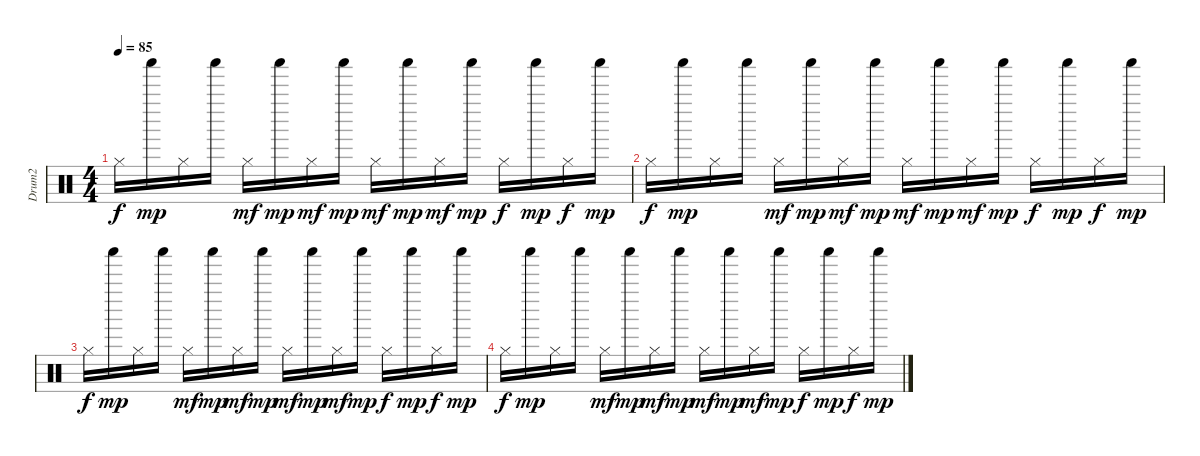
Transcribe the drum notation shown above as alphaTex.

\track ("Drum2" "Drum2") {instrument percussion}
\staff {score}
\articulation defaults
\ts (4 4)
\tempo 85
\clef neutral
\ks c "Hi-Hat (closed)".16{dy f} "Shaker (hit)".16{dy mp} "Hi-Hat (closed)".16 "Shaker (hit)".16 "Hi-Hat (closed)".16{dy mf} "Shaker (hit)".16{dy mp} "Hi-Hat (closed)".16{dy mf} "Shaker (hit)".16{dy mp} "Hi-Hat (closed)".16{dy mf} "Shaker (hit)".16{dy mp} "Hi-Hat (closed)".16{dy mf} "Shaker (hit)".16{dy mp} "Hi-Hat (closed)".16{dy f} "Shaker (hit)".16{dy mp} "Hi-Hat (closed)".16{dy f} "Shaker (hit)".16{dy mp}
|
"Hi-Hat (closed)".16{dy f} "Shaker (hit)".16{dy mp} "Hi-Hat (closed)".16 "Shaker (hit)".16 "Hi-Hat (closed)".16{dy mf} "Shaker (hit)".16{dy mp} "Hi-Hat (closed)".16{dy mf} "Shaker (hit)".16{dy mp} "Hi-Hat (closed)".16{dy mf} "Shaker (hit)".16{dy mp} "Hi-Hat (closed)".16{dy mf} "Shaker (hit)".16{dy mp} "Hi-Hat (closed)".16{dy f} "Shaker (hit)".16{dy mp} "Hi-Hat (closed)".16{dy f} "Shaker (hit)".16{dy mp} |
"Hi-Hat (closed)".16{dy f} "Shaker (hit)".16{dy mp} "Hi-Hat (closed)".16 "Shaker (hit)".16 "Hi-Hat (closed)".16{dy mf} "Shaker (hit)".16{dy mp} "Hi-Hat (closed)".16{dy mf} "Shaker (hit)".16{dy mp} "Hi-Hat (closed)".16{dy mf} "Shaker (hit)".16{dy mp} "Hi-Hat (closed)".16{dy mf} "Shaker (hit)".16{dy mp} "Hi-Hat (closed)".16{dy f} "Shaker (hit)".16{dy mp} "Hi-Hat (closed)".16{dy f} "Shaker (hit)".16{dy mp} |
"Hi-Hat (closed)".16{dy f} "Shaker (hit)".16{dy mp} "Hi-Hat (closed)".16 "Shaker (hit)".16 "Hi-Hat (closed)".16{dy mf} "Shaker (hit)".16{dy mp} "Hi-Hat (closed)".16{dy mf} "Shaker (hit)".16{dy mp} "Hi-Hat (closed)".16{dy mf} "Shaker (hit)".16{dy mp} "Hi-Hat (closed)".16{dy mf} "Shaker (hit)".16{dy mp} "Hi-Hat (closed)".16{dy f} "Shaker (hit)".16{dy mp} "Hi-Hat (closed)".16{dy f} "Shaker (hit)".16{dy mp}
